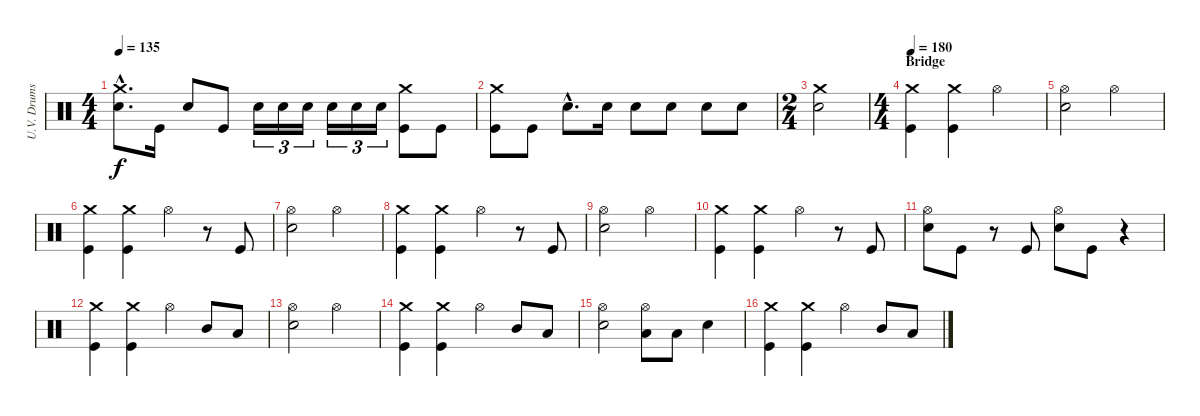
\track ("U.V. Drums" "U.V. Drums") {instrument percussion}
\staff {score}
\articulation defaults
\ts (4 4)
\tempo 135
\clef neutral
\ks c
("Crash medium (hit)"{hac} "Electric Snare (hit)"{hac}).8{d dy f} "Kick (hit)".16 "Electric Snare (hit)".8 "Kick (hit)".8 "Electric Snare (hit)".16{tu (3 2)} "Electric Snare (hit)".16{tu (3 2)} "Electric Snare (hit)".16{tu (3 2)} "Electric Snare (hit)".16{tu (3 2)} "Electric Snare (hit)".16{tu (3 2)} "Electric Snare (hit)".16{tu (3 2)} ("Crash medium (hit)" "Kick (hit)").8 "Kick (hit)".8 |
("Crash medium (hit)" "Kick (hit)").8 "Kick (hit)".8 "Electric Snare (hit)"{hac}.8{d} "Electric Snare (hit)".16 "Electric Snare (hit)".8 "Electric Snare (hit)".8 "Electric Snare (hit)".8 "Electric Snare (hit)".8 |
\ts (2 4)
("Crash medium (hit)" "Electric Snare (hit)").2 |
\ts (4 4)
\section ("" "Bridge")
\tempo 180
("Crash medium (hit)" "Kick (hit)").4 ("Crash medium (hit)" "Kick (hit)").4 "Hi-Hat (open)".2 |
("Hi-Hat (open)" "Electric Snare (hit)").2 "Hi-Hat (open)".2 |
("Crash medium (hit)" "Kick (hit)").4 ("Crash medium (hit)" "Kick (hit)").4 "Hi-Hat (open)".4 r.8 "Kick (hit)".8 |
("Hi-Hat (open)" "Electric Snare (hit)").2 "Hi-Hat (open)".2 |
("Crash medium (hit)" "Kick (hit)").4 ("Crash medium (hit)" "Kick (hit)").4 "Hi-Hat (open)".4 r.8 "Kick (hit)".8 |
("Hi-Hat (open)" "Electric Snare (hit)").2 "Hi-Hat (open)".2 |
("Crash medium (hit)" "Kick (hit)").4 ("Crash medium (hit)" "Kick (hit)").4 "Hi-Hat (open)".4 r.8 "Kick (hit)".8 |
("Hi-Hat (open)" "Electric Snare (hit)").8 "Kick (hit)".8 r.8 "Kick (hit)".8 ("Hi-Hat (open)" "Electric Snare (hit)").8 "Kick (hit)".8 r.4 |
("Crash medium (hit)" "Kick (hit)").4 ("Crash medium (hit)" "Kick (hit)").4 "Hi-Hat (open)".4 "Mid Tom (hit)".8 "Low Tom (hit)".8 |
("Hi-Hat (open)" "Electric Snare (hit)").2 "Hi-Hat (open)".2 |
("Crash medium (hit)" "Kick (hit)").4 ("Crash medium (hit)" "Kick (hit)").4 "Hi-Hat (open)".4 "Mid Tom (hit)".8 "Low Tom (hit)".8 |
("Hi-Hat (open)" "Electric Snare (hit)").2 ("Hi-Hat (open)" "Low Tom (hit)").8 "Low Tom (hit)".8 "Electric Snare (hit)".4 |
("Crash medium (hit)" "Kick (hit)").4 ("Crash medium (hit)" "Kick (hit)").4 "Hi-Hat (open)".4 "Mid Tom (hit)".8 "Low Tom (hit)".8
